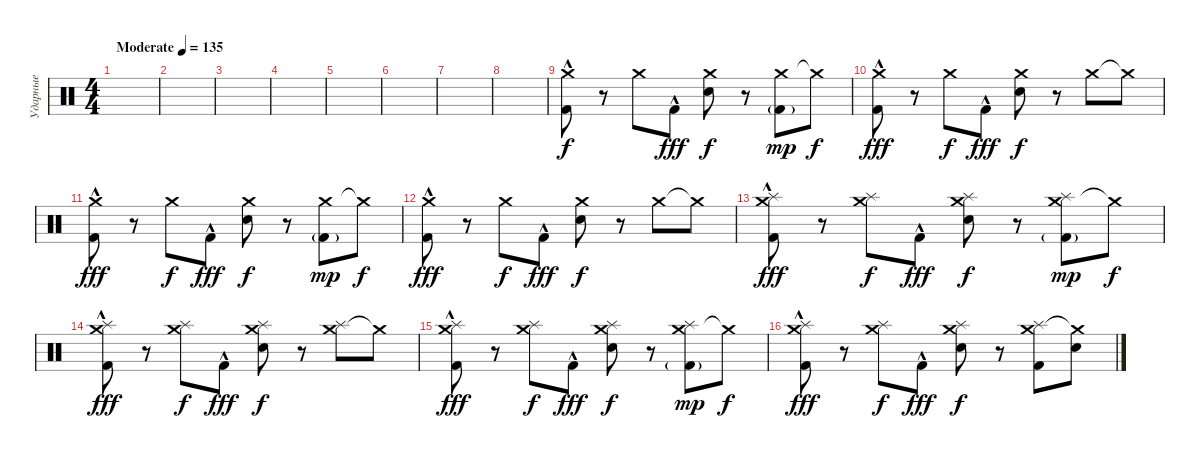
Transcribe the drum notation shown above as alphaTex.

\track ("Ударные" "Ударные") {instrument percussion}
\staff {score}
\articulation defaults
\ts (4 4)
\tempo (135 "Moderate")
\clef neutral
\ks c
|
|
|
|
|
|
|
|
("Crash medium (hit)" "Kick (hit) 2"{hac}).8 r.8 "Crash medium (hit)".8{dy f} "Kick (hit) 2"{hac}.8{dy fff} ("Crash medium (hit)" "Electric Snare (hit)").8{dy f} r.8 ("Crash medium (hit)" "Kick (hit) 2"{g}).8{dy mp} "Crash medium (hit)"{t}.8{dy f} |
("Crash medium (hit)" "Kick (hit) 2"{hac}).8{dy fff} r.8 "Crash medium (hit)".8{dy f} "Kick (hit) 2"{hac}.8{dy fff} ("Crash medium (hit)" "Electric Snare (hit)").8{dy f} r.8 "Crash medium (hit)".8 "Crash medium (hit)"{t}.8 |
("Crash medium (hit)" "Kick (hit) 2"{hac}).8{dy fff} r.8 "Crash medium (hit)".8{dy f} "Kick (hit) 2"{hac}.8{dy fff} ("Crash medium (hit)" "Electric Snare (hit)").8{dy f} r.8 ("Crash medium (hit)" "Kick (hit) 2"{g}).8{dy mp} "Crash medium (hit)"{t}.8{dy f} |
("Crash medium (hit)" "Kick (hit) 2"{hac}).8{dy fff} r.8 "Crash medium (hit)".8{dy f} "Kick (hit) 2"{hac}.8{dy fff} ("Crash medium (hit)" "Electric Snare (hit)").8{dy f} r.8 "Crash medium (hit)".8 "Crash medium (hit)"{t}.8 |
("Crash medium (hit)" "Splash (hit)" "Kick (hit) 2"{hac}).8{dy fff} r.8 ("Crash medium (hit)" "Splash (hit)").8{dy f} "Kick (hit) 2"{hac}.8{dy fff} ("Crash medium (hit)" "Splash (hit)" "Electric Snare (hit)").8{dy f} r.8 ("Crash medium (hit)" "Splash (hit)" "Kick (hit) 2"{g}).8{dy mp} "Crash medium (hit)"{t}.8{dy f} |
("Crash medium (hit)" "Splash (hit)" "Kick (hit) 2"{hac}).8{dy fff} r.8 ("Crash medium (hit)" "Splash (hit)").8{dy f} "Kick (hit) 2"{hac}.8{dy fff} ("Crash medium (hit)" "Splash (hit)" "Electric Snare (hit)").8{dy f} r.8 ("Crash medium (hit)" "Splash (hit)").8 "Crash medium (hit)"{t}.8 |
("Crash medium (hit)" "Splash (hit)" "Kick (hit) 2"{hac}).8{dy fff} r.8 ("Crash medium (hit)" "Splash (hit)").8{dy f} "Kick (hit) 2"{hac}.8{dy fff} ("Crash medium (hit)" "Splash (hit)" "Electric Snare (hit)").8{dy f} r.8 ("Crash medium (hit)" "Splash (hit)" "Kick (hit) 2"{g}).8{dy mp} "Crash medium (hit)"{t}.8{dy f} |
("Crash medium (hit)" "Splash (hit)" "Kick (hit) 2"{hac}).8{dy fff} r.8 ("Crash medium (hit)" "Splash (hit)").8{dy f} "Kick (hit) 2"{hac}.8{dy fff} ("Crash medium (hit)" "Splash (hit)" "Electric Snare (hit)").8{dy f} r.8 ("Crash medium (hit)" "Splash (hit)" "Kick (hit) 2").8 ("Crash medium (hit)"{t} "Electric Snare (hit)").8
